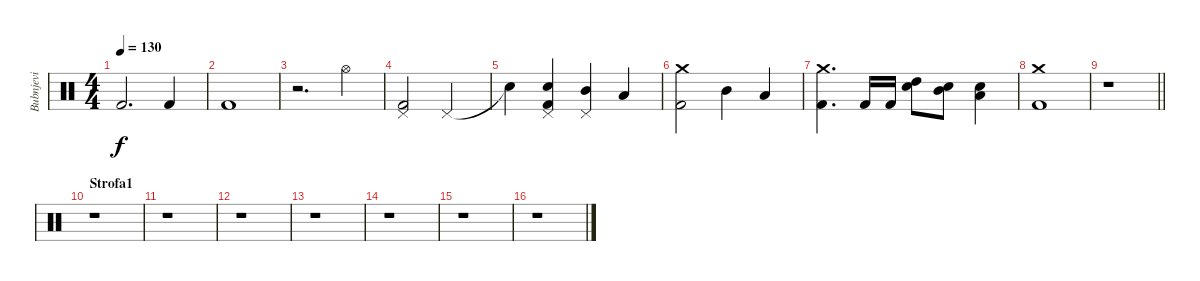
\track ("Bubnjevi" "Bubnjevi") {instrument percussion}
\staff {score}
\articulation defaults
\ts (4 4)
\tempo 130
\clef neutral
\ks c "Kick (hit) 2".2{d dy f} "Kick (hit) 2".4
|
"Kick (hit) 2".1 |
r.2{d} "Hi-Hat (open)".4 |
("Pedal Hi-Hat (hit)" "Kick (hit) 2").2 "Pedal Hi-Hat (hit)".2 |
"Snare (hit)"{t}.4 ("Pedal Hi-Hat (hit)" "Electric Snare (hit)" "Kick (hit) 2").4 ("Pedal Hi-Hat (hit)" "Mid Tom (hit)").4 "Low Tom (hit)".4 |
("Crash medium (hit)" "Kick (hit) 2").2 "Mid Tom (hit)".4 "Low Tom (hit)".4 |
("Crash medium (hit)" "Kick (hit) 2").4{d} "Kick (hit) 2".16 "Kick (hit) 2".16 ("Electric Snare (hit)" "High Tom (hit)").8 ("Electric Snare (hit)" "Mid Tom (hit)").8 ("Electric Snare (hit)" "Low Tom (hit)").4 |
("Crash medium (hit)" "Kick (hit) 2").1 |
\barLineRight lightlight
r.1 |
\section ("" "Strofa1")
r.1 |
r.1 |
r.1 |
r.1 |
r.1 |
r.1 |
r.1
